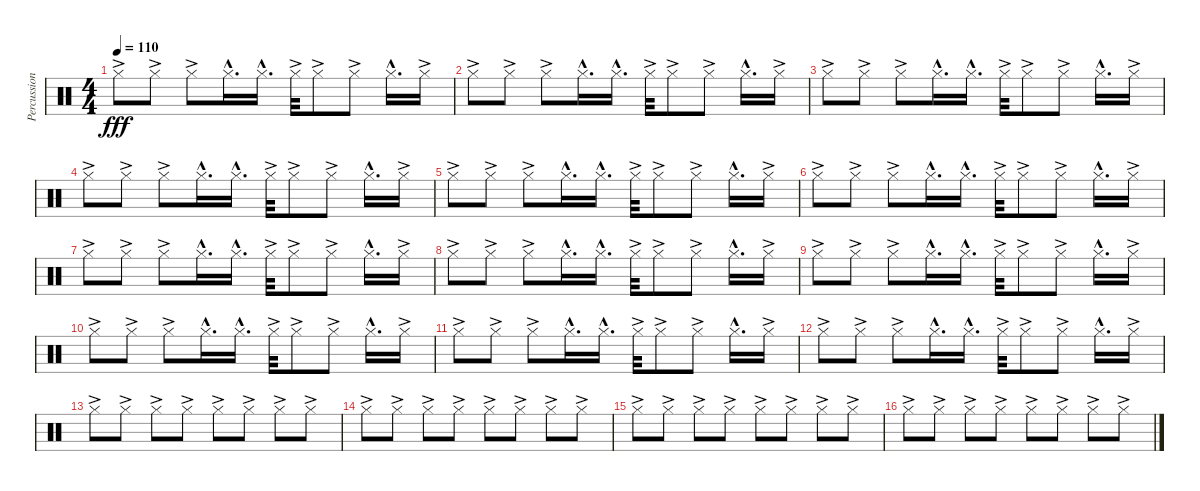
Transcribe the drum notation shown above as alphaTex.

\track ("Percussion" "Percussion") {instrument percussion}
\staff {score}
\articulation defaults
\ts (4 4)
\tempo 110
\clef neutral
\ks c "Hi-Hat (closed)"{ac}.8{dy fff} "Hi-Hat (closed)"{ac}.8 "Hi-Hat (closed)"{ac}.8 "Hi-Hat (closed)"{hac}.16{d} "Hi-Hat (closed)"{hac}.16{d} "Hi-Hat (closed)"{ac}.32 "Hi-Hat (closed)"{ac}.8 "Hi-Hat (closed)"{ac}.8 "Hi-Hat (closed)"{hac}.16{d} "Hi-Hat (closed)"{ac}.16
|
"Hi-Hat (closed)"{ac}.8 "Hi-Hat (closed)"{ac}.8 "Hi-Hat (closed)"{ac}.8 "Hi-Hat (closed)"{hac}.16{d} "Hi-Hat (closed)"{hac}.16{d} "Hi-Hat (closed)"{ac}.32 "Hi-Hat (closed)"{ac}.8 "Hi-Hat (closed)"{ac}.8 "Hi-Hat (closed)"{hac}.16{d} "Hi-Hat (closed)"{ac}.16 |
"Hi-Hat (closed)"{ac}.8 "Hi-Hat (closed)"{ac}.8 "Hi-Hat (closed)"{ac}.8 "Hi-Hat (closed)"{hac}.16{d} "Hi-Hat (closed)"{hac}.16{d} "Hi-Hat (closed)"{ac}.32 "Hi-Hat (closed)"{ac}.8 "Hi-Hat (closed)"{ac}.8 "Hi-Hat (closed)"{hac}.16{d} "Hi-Hat (closed)"{ac}.16 |
"Hi-Hat (closed)"{ac}.8 "Hi-Hat (closed)"{ac}.8 "Hi-Hat (closed)"{ac}.8 "Hi-Hat (closed)"{hac}.16{d} "Hi-Hat (closed)"{hac}.16{d} "Hi-Hat (closed)"{ac}.32 "Hi-Hat (closed)"{ac}.8 "Hi-Hat (closed)"{ac}.8 "Hi-Hat (closed)"{hac}.16{d} "Hi-Hat (closed)"{ac}.16 |
"Hi-Hat (closed)"{ac}.8 "Hi-Hat (closed)"{ac}.8 "Hi-Hat (closed)"{ac}.8 "Hi-Hat (closed)"{hac}.16{d} "Hi-Hat (closed)"{hac}.16{d} "Hi-Hat (closed)"{ac}.32 "Hi-Hat (closed)"{ac}.8 "Hi-Hat (closed)"{ac}.8 "Hi-Hat (closed)"{hac}.16{d} "Hi-Hat (closed)"{ac}.16 |
"Hi-Hat (closed)"{ac}.8 "Hi-Hat (closed)"{ac}.8 "Hi-Hat (closed)"{ac}.8 "Hi-Hat (closed)"{hac}.16{d} "Hi-Hat (closed)"{hac}.16{d} "Hi-Hat (closed)"{ac}.32 "Hi-Hat (closed)"{ac}.8 "Hi-Hat (closed)"{ac}.8 "Hi-Hat (closed)"{hac}.16{d} "Hi-Hat (closed)"{ac}.16 |
"Hi-Hat (closed)"{ac}.8 "Hi-Hat (closed)"{ac}.8 "Hi-Hat (closed)"{ac}.8 "Hi-Hat (closed)"{hac}.16{d} "Hi-Hat (closed)"{hac}.16{d} "Hi-Hat (closed)"{ac}.32 "Hi-Hat (closed)"{ac}.8 "Hi-Hat (closed)"{ac}.8 "Hi-Hat (closed)"{hac}.16{d} "Hi-Hat (closed)"{ac}.16 |
"Hi-Hat (closed)"{ac}.8 "Hi-Hat (closed)"{ac}.8 "Hi-Hat (closed)"{ac}.8 "Hi-Hat (closed)"{hac}.16{d} "Hi-Hat (closed)"{hac}.16{d} "Hi-Hat (closed)"{ac}.32 "Hi-Hat (closed)"{ac}.8 "Hi-Hat (closed)"{ac}.8 "Hi-Hat (closed)"{hac}.16{d} "Hi-Hat (closed)"{ac}.16 |
"Hi-Hat (closed)"{ac}.8 "Hi-Hat (closed)"{ac}.8 "Hi-Hat (closed)"{ac}.8 "Hi-Hat (closed)"{hac}.16{d} "Hi-Hat (closed)"{hac}.16{d} "Hi-Hat (closed)"{ac}.32 "Hi-Hat (closed)"{ac}.8 "Hi-Hat (closed)"{ac}.8 "Hi-Hat (closed)"{hac}.16{d} "Hi-Hat (closed)"{ac}.16 |
"Hi-Hat (closed)"{ac}.8 "Hi-Hat (closed)"{ac}.8 "Hi-Hat (closed)"{ac}.8 "Hi-Hat (closed)"{hac}.16{d} "Hi-Hat (closed)"{hac}.16{d} "Hi-Hat (closed)"{ac}.32 "Hi-Hat (closed)"{ac}.8 "Hi-Hat (closed)"{ac}.8 "Hi-Hat (closed)"{hac}.16{d} "Hi-Hat (closed)"{ac}.16 |
"Hi-Hat (closed)"{ac}.8 "Hi-Hat (closed)"{ac}.8 "Hi-Hat (closed)"{ac}.8 "Hi-Hat (closed)"{hac}.16{d} "Hi-Hat (closed)"{hac}.16{d} "Hi-Hat (closed)"{ac}.32 "Hi-Hat (closed)"{ac}.8 "Hi-Hat (closed)"{ac}.8 "Hi-Hat (closed)"{hac}.16{d} "Hi-Hat (closed)"{ac}.16 |
"Hi-Hat (closed)"{ac}.8 "Hi-Hat (closed)"{ac}.8 "Hi-Hat (closed)"{ac}.8 "Hi-Hat (closed)"{hac}.16{d} "Hi-Hat (closed)"{hac}.16{d} "Hi-Hat (closed)"{ac}.32 "Hi-Hat (closed)"{ac}.8 "Hi-Hat (closed)"{ac}.8 "Hi-Hat (closed)"{hac}.16{d} "Hi-Hat (closed)"{ac}.16 |
"Hi-Hat (closed)"{ac}.8 "Hi-Hat (closed)"{ac}.8 "Hi-Hat (closed)"{ac}.8 "Hi-Hat (closed)"{ac}.8 "Hi-Hat (closed)"{ac}.8 "Hi-Hat (closed)"{ac}.8 "Hi-Hat (closed)"{ac}.8 "Hi-Hat (closed)"{ac}.8 |
"Hi-Hat (closed)"{ac}.8 "Hi-Hat (closed)"{ac}.8 "Hi-Hat (closed)"{ac}.8 "Hi-Hat (closed)"{ac}.8 "Hi-Hat (closed)"{ac}.8 "Hi-Hat (closed)"{ac}.8 "Hi-Hat (closed)"{ac}.8 "Hi-Hat (closed)"{ac}.8 |
"Hi-Hat (closed)"{ac}.8 "Hi-Hat (closed)"{ac}.8 "Hi-Hat (closed)"{ac}.8 "Hi-Hat (closed)"{ac}.8 "Hi-Hat (closed)"{ac}.8 "Hi-Hat (closed)"{ac}.8 "Hi-Hat (closed)"{ac}.8 "Hi-Hat (closed)"{ac}.8 |
"Hi-Hat (closed)"{ac}.8 "Hi-Hat (closed)"{ac}.8 "Hi-Hat (closed)"{ac}.8 "Hi-Hat (closed)"{ac}.8 "Hi-Hat (closed)"{ac}.8 "Hi-Hat (closed)"{ac}.8 "Hi-Hat (closed)"{ac}.8 "Hi-Hat (closed)"{ac}.8
